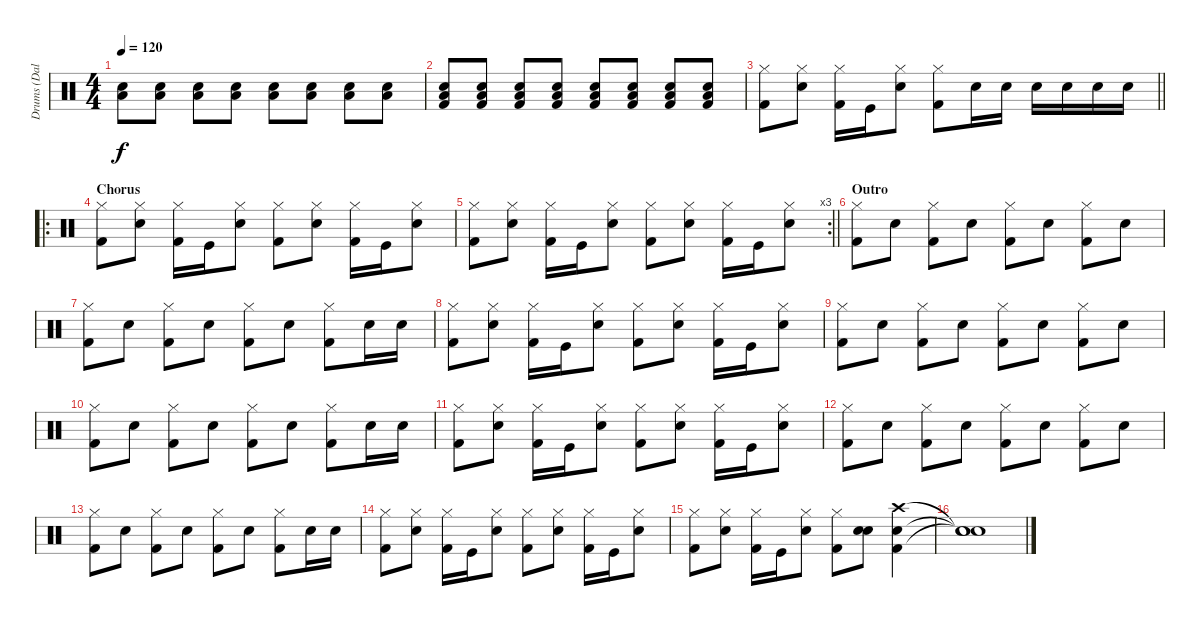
\track ("Drums (Dalton Black)" "Drums (Dal") {instrument percussion}
\staff {score}
\articulation defaults
\ts (4 4)
\tempo 120
\clef neutral
\ks c
("Low Tom (hit)" "Electric Snare (hit)").8{dy f} ("Low Tom (hit)" "Electric Snare (hit)").8 ("Low Tom (hit)" "Electric Snare (hit)").8 ("Low Tom (hit)" "Electric Snare (hit)").8 ("Low Tom (hit)" "Electric Snare (hit)").8 ("Low Tom (hit)" "Electric Snare (hit)").8 ("Low Tom (hit)" "Electric Snare (hit)").8 ("Low Tom (hit)" "Electric Snare (hit)").8 |
("Low Tom (hit)" "Electric Snare (hit)" "Kick (hit) 2").8 ("Low Tom (hit)" "Electric Snare (hit)" "Kick (hit) 2").8 ("Low Tom (hit)" "Electric Snare (hit)" "Kick (hit) 2").8 ("Low Tom (hit)" "Electric Snare (hit)" "Kick (hit) 2").8 ("Low Tom (hit)" "Electric Snare (hit)" "Kick (hit) 2").8 ("Low Tom (hit)" "Electric Snare (hit)" "Kick (hit) 2").8 ("Low Tom (hit)" "Electric Snare (hit)" "Kick (hit) 2").8 ("Low Tom (hit)" "Electric Snare (hit)" "Kick (hit) 2").8 |
\barLineRight lightlight
("Hi-Hat (closed)" "Kick (hit) 2").8 ("Hi-Hat (closed)" "Electric Snare (hit)").8 ("Hi-Hat (closed)" "Kick (hit) 2").16 "Kick (hit)".16 ("Hi-Hat (closed)" "Electric Snare (hit)").8 ("Hi-Hat (closed)" "Kick (hit) 2").8 "Electric Snare (hit)".16 "Electric Snare (hit)".16 "Electric Snare (hit)".16 "Electric Snare (hit)".16 "Electric Snare (hit)".16 "Electric Snare (hit)".16 |
\ro
\section ("" "Chorus")
("Hi-Hat (closed)" "Kick (hit) 2").8 ("Hi-Hat (closed)" "Electric Snare (hit)").8 ("Hi-Hat (closed)" "Kick (hit) 2").16 "Kick (hit)".16 ("Hi-Hat (closed)" "Electric Snare (hit)").8 ("Hi-Hat (closed)" "Kick (hit) 2").8 ("Hi-Hat (closed)" "Electric Snare (hit)").8 ("Hi-Hat (closed)" "Kick (hit) 2").16 "Kick (hit)".16 ("Hi-Hat (closed)" "Electric Snare (hit)").8 |
\rc 3
\barLineRight lightlight
("Hi-Hat (closed)" "Kick (hit) 2").8 ("Hi-Hat (closed)" "Electric Snare (hit)").8 ("Hi-Hat (closed)" "Kick (hit) 2").16 "Kick (hit)".16 ("Hi-Hat (closed)" "Electric Snare (hit)").8 ("Hi-Hat (closed)" "Kick (hit) 2").8 ("Hi-Hat (closed)" "Electric Snare (hit)").8 ("Hi-Hat (closed)" "Kick (hit) 2").16 "Kick (hit)".16 ("Hi-Hat (closed)" "Electric Snare (hit)").8 |
\section ("" "Outro")
("Hi-Hat (closed)" "Kick (hit) 2").8 "Electric Snare (hit)".8 ("Hi-Hat (closed)" "Kick (hit) 2").8 "Electric Snare (hit)".8 ("Hi-Hat (closed)" "Kick (hit) 2").8 "Electric Snare (hit)".8 ("Hi-Hat (closed)" "Kick (hit) 2").8 "Electric Snare (hit)".8 |
("Hi-Hat (closed)" "Kick (hit) 2").8 "Electric Snare (hit)".8 ("Hi-Hat (closed)" "Kick (hit) 2").8 "Electric Snare (hit)".8 ("Hi-Hat (closed)" "Kick (hit) 2").8 "Electric Snare (hit)".8 ("Hi-Hat (closed)" "Kick (hit) 2").8 "Electric Snare (hit)".16 "Electric Snare (hit)".16 |
("Hi-Hat (closed)" "Kick (hit) 2").8 ("Hi-Hat (closed)" "Electric Snare (hit)").8 ("Hi-Hat (closed)" "Kick (hit) 2").16 "Kick (hit)".16 ("Hi-Hat (closed)" "Electric Snare (hit)").8 ("Hi-Hat (closed)" "Kick (hit) 2").8 ("Hi-Hat (closed)" "Electric Snare (hit)").8 ("Hi-Hat (closed)" "Kick (hit) 2").16 "Kick (hit)".16 ("Hi-Hat (closed)" "Electric Snare (hit)").8 |
("Hi-Hat (closed)" "Kick (hit) 2").8 "Electric Snare (hit)".8 ("Hi-Hat (closed)" "Kick (hit) 2").8 "Electric Snare (hit)".8 ("Hi-Hat (closed)" "Kick (hit) 2").8 "Electric Snare (hit)".8 ("Hi-Hat (closed)" "Kick (hit) 2").8 "Electric Snare (hit)".8 |
("Hi-Hat (closed)" "Kick (hit) 2").8 "Electric Snare (hit)".8 ("Hi-Hat (closed)" "Kick (hit) 2").8 "Electric Snare (hit)".8 ("Hi-Hat (closed)" "Kick (hit) 2").8 "Electric Snare (hit)".8 ("Hi-Hat (closed)" "Kick (hit) 2").8 "Electric Snare (hit)".16 "Electric Snare (hit)".16 |
("Hi-Hat (closed)" "Kick (hit) 2").8 ("Hi-Hat (closed)" "Electric Snare (hit)").8 ("Hi-Hat (closed)" "Kick (hit) 2").16 "Kick (hit)".16 ("Hi-Hat (closed)" "Electric Snare (hit)").8 ("Hi-Hat (closed)" "Kick (hit) 2").8 ("Hi-Hat (closed)" "Electric Snare (hit)").8 ("Hi-Hat (closed)" "Kick (hit) 2").16 "Kick (hit)".16 ("Hi-Hat (closed)" "Electric Snare (hit)").8 |
("Hi-Hat (closed)" "Kick (hit) 2").8 "Electric Snare (hit)".8 ("Hi-Hat (closed)" "Kick (hit) 2").8 "Electric Snare (hit)".8 ("Hi-Hat (closed)" "Kick (hit) 2").8 "Electric Snare (hit)".8 ("Hi-Hat (closed)" "Kick (hit) 2").8 "Electric Snare (hit)".8 |
("Hi-Hat (closed)" "Kick (hit) 2").8 "Electric Snare (hit)".8 ("Hi-Hat (closed)" "Kick (hit) 2").8 "Electric Snare (hit)".8 ("Hi-Hat (closed)" "Kick (hit) 2").8 "Electric Snare (hit)".8 ("Hi-Hat (closed)" "Kick (hit) 2").8 "Electric Snare (hit)".16 "Electric Snare (hit)".16 |
("Hi-Hat (closed)" "Kick (hit) 2").8 ("Hi-Hat (closed)" "Electric Snare (hit)").8 ("Hi-Hat (closed)" "Kick (hit) 2").16 "Kick (hit)".16 ("Hi-Hat (closed)" "Electric Snare (hit)").8 ("Hi-Hat (closed)" "Kick (hit) 2").8 ("Hi-Hat (closed)" "Electric Snare (hit)").8 ("Hi-Hat (closed)" "Kick (hit) 2").16 "Kick (hit)".16 ("Hi-Hat (closed)" "Electric Snare (hit)").8 |
("Hi-Hat (closed)" "Kick (hit) 2").8 ("Hi-Hat (closed)" "Electric Snare (hit)").8 ("Hi-Hat (closed)" "Kick (hit) 2").16 "Kick (hit)".16 ("Hi-Hat (closed)" "Electric Snare (hit)").8 ("Hi-Hat (closed)" "Kick (hit) 2").8 ("Electric Snare (hit)" "Electric Snare (hit)").8 ("Crash high (hit)" "Electric Snare (hit)" "Kick (hit) 2").4 |
("Snare (hit)"{t} "Snare (hit)"{t} "Snare (hit)"{t}).1
